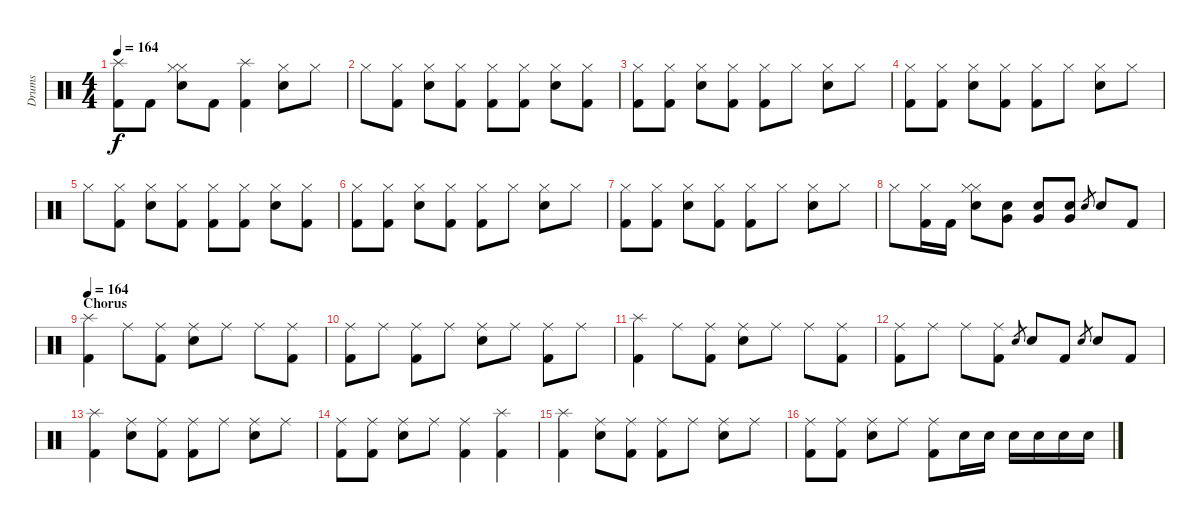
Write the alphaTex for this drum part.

\track ("Drums" "Drums") {instrument percussion}
\staff {score}
\articulation defaults
\ts (4 4)
\tempo 164
\clef neutral
\ks c
("Splash (hit)" "Kick (hit) 2").8{dy f} "Kick (hit) 2".8 ("Hi-Hat (closed)" "Hi-Hat (closed)" "Electric Snare (hit)").8 "Kick (hit) 2".8 ("Splash (hit)" "Kick (hit) 2").4 ("Hi-Hat (closed)" "Electric Snare (hit)").8 "Hi-Hat (closed)".8 |
"Hi-Hat (closed)".8 ("Hi-Hat (closed)" "Kick (hit) 2").8 ("Hi-Hat (closed)" "Electric Snare (hit)").8 ("Hi-Hat (closed)" "Kick (hit) 2").8 ("Hi-Hat (closed)" "Kick (hit) 2").8 ("Hi-Hat (closed)" "Kick (hit) 2").8 ("Hi-Hat (closed)" "Electric Snare (hit)").8 ("Hi-Hat (closed)" "Kick (hit) 2").8 |
("Hi-Hat (closed)" "Kick (hit) 2").8 ("Hi-Hat (closed)" "Kick (hit) 2").8 ("Hi-Hat (closed)" "Electric Snare (hit)").8 ("Hi-Hat (closed)" "Kick (hit) 2").8 ("Hi-Hat (closed)" "Kick (hit) 2").8 "Hi-Hat (closed)".8 ("Hi-Hat (closed)" "Electric Snare (hit)").8 "Hi-Hat (closed)".8 |
("Hi-Hat (closed)" "Kick (hit) 2").8 ("Hi-Hat (closed)" "Kick (hit) 2").8 ("Hi-Hat (closed)" "Electric Snare (hit)").8 ("Hi-Hat (closed)" "Kick (hit) 2").8 ("Hi-Hat (closed)" "Kick (hit) 2").8 "Hi-Hat (closed)".8 ("Hi-Hat (closed)" "Electric Snare (hit)").8 "Hi-Hat (closed)".8 |
"Hi-Hat (closed)".8 ("Hi-Hat (closed)" "Kick (hit) 2").8 ("Hi-Hat (closed)" "Electric Snare (hit)").8 ("Hi-Hat (closed)" "Kick (hit) 2").8 ("Hi-Hat (closed)" "Kick (hit) 2").8 ("Hi-Hat (closed)" "Kick (hit) 2").8 ("Hi-Hat (closed)" "Electric Snare (hit)").8 ("Hi-Hat (closed)" "Kick (hit) 2").8 |
("Hi-Hat (closed)" "Kick (hit) 2").8 ("Hi-Hat (closed)" "Kick (hit) 2").8 ("Hi-Hat (closed)" "Electric Snare (hit)").8 ("Hi-Hat (closed)" "Kick (hit) 2").8 ("Hi-Hat (closed)" "Kick (hit) 2").8 "Hi-Hat (closed)".8 ("Hi-Hat (closed)" "Electric Snare (hit)").8 "Hi-Hat (closed)".8 |
("Hi-Hat (closed)" "Kick (hit) 2").8 ("Hi-Hat (closed)" "Kick (hit) 2").8 ("Hi-Hat (closed)" "Electric Snare (hit)").8 ("Hi-Hat (closed)" "Kick (hit) 2").8 ("Hi-Hat (closed)" "Kick (hit) 2").8 "Hi-Hat (closed)".8 ("Hi-Hat (closed)" "Electric Snare (hit)").8 "Hi-Hat (closed)".8 |
"Hi-Hat (closed)".8 ("Hi-Hat (closed)" "Kick (hit) 2").16 "Kick (hit) 2".16 ("Hi-Hat (closed)" "Hi-Hat (closed)" "Electric Snare (hit)").8 ("Very Low Tom (hit)" "Electric Snare (hit)").8 ("Very Low Tom (hit)" "Electric Snare (hit)").8 ("Very Low Tom (hit)" "Electric Snare (hit)").8 "Electric Snare (hit)".8{gr} "Electric Snare (hit)".8 "Kick (hit) 2".8 |
\section ("" "Chorus")
\tempo 164
("Splash (hit)" "Kick (hit) 2").4 "Ride (middle)".8 ("Ride (middle)" "Kick (hit) 2").8 ("Ride (middle)" "Electric Snare (hit)").8 "Ride (middle)".8 "Ride (middle)".8 ("Ride (middle)" "Kick (hit) 2").8 |
("Ride (middle)" "Kick (hit) 2").8 "Ride (middle)".8 ("Ride (middle)" "Kick (hit) 2").8 "Ride (middle)".8 ("Ride (middle)" "Electric Snare (hit)").8 "Ride (middle)".8 ("Ride (middle)" "Kick (hit) 2").8 "Ride (middle)".8 |
("Splash (hit)" "Kick (hit) 2").4 "Ride (middle)".8 ("Ride (middle)" "Kick (hit) 2").8 ("Ride (middle)" "Electric Snare (hit)").8 "Ride (middle)".8 "Ride (middle)".8 ("Ride (middle)" "Kick (hit) 2").8 |
("Ride (middle)" "Kick (hit) 2").8 "Ride (middle)".8 "Ride (middle)".8 ("Ride (middle)" "Kick (hit) 2").8 "Electric Snare (hit)".8{gr} "Electric Snare (hit)".8 "Kick (hit) 2".8 "Electric Snare (hit)".8{gr} "Electric Snare (hit)".8 "Kick (hit) 2".8 |
("Splash (hit)" "Kick (hit) 2").4 ("Ride (middle)" "Electric Snare (hit)").8 ("Ride (middle)" "Kick (hit) 2").8 ("Ride (middle)" "Kick (hit) 2").8 "Ride (middle)".8 ("Ride (middle)" "Electric Snare (hit)").8 "Ride (middle)".8 |
("Ride (middle)" "Kick (hit) 2").8 ("Ride (middle)" "Kick (hit) 2").8 ("Ride (middle)" "Electric Snare (hit)").8 "Ride (middle)".8 ("Ride (middle)" "Kick (hit) 2").4 ("Splash (hit)" "Kick (hit) 2").4 |
("Splash (hit)" "Kick (hit) 2").4 ("Ride (middle)" "Electric Snare (hit)").8 ("Ride (middle)" "Kick (hit) 2").8 ("Ride (middle)" "Kick (hit) 2").8 "Ride (middle)".8 ("Ride (middle)" "Electric Snare (hit)").8 "Ride (middle)".8 |
("Ride (middle)" "Kick (hit) 2").8 ("Ride (middle)" "Kick (hit) 2").8 ("Ride (middle)" "Electric Snare (hit)").8 "Ride (middle)".8 ("Ride (middle)" "Kick (hit) 2").8 "Electric Snare (hit)".16 "Electric Snare (hit)".16 "Electric Snare (hit)".16 "Electric Snare (hit)".16 "Electric Snare (hit)".16 "Electric Snare (hit)".16
